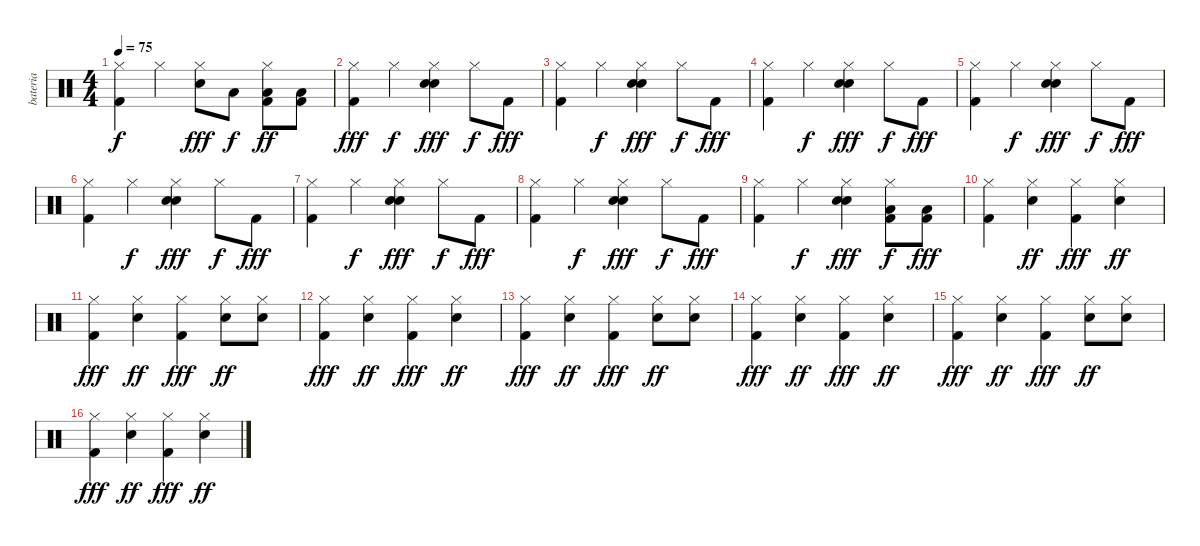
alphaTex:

\track ("bateria" "bateria") {instrument percussion}
\staff {score}
\articulation defaults
\ts (4 4)
\tempo 75
\clef neutral
\ks c
("Hi-Hat (closed)" "Kick (hit) 2").4{dy f} "Hi-Hat (closed)".4 ("Hi-Hat (closed)" "Electric Snare (hit)").8{dy fff} "Low Floor Tom (hit)".8{dy f} ("Hi-Hat (closed)" "Low Floor Tom (hit)" "Kick (hit) 2").8{dy ff} ("Low Floor Tom (hit)" "Kick (hit) 2").8 |
("Hi-Hat (closed)" "Kick (hit) 2").4{dy fff} "Hi-Hat (closed)".4{dy f} ("Hi-Hat (closed)" "Electric Snare (hit)" "Electric Snare (hit)").4{bd 60 dy fff} "Hi-Hat (closed)".8{dy f} "Kick (hit) 2".8{dy fff} |
("Hi-Hat (closed)" "Kick (hit) 2").4 "Hi-Hat (closed)".4{dy f} ("Hi-Hat (closed)" "Electric Snare (hit)" "Electric Snare (hit)").4{bd 60 dy fff} "Hi-Hat (closed)".8{dy f} "Kick (hit) 2".8{dy fff} |
("Hi-Hat (closed)" "Kick (hit) 2").4 "Hi-Hat (closed)".4{dy f} ("Hi-Hat (closed)" "Electric Snare (hit)" "Electric Snare (hit)").4{bd 60 dy fff} "Hi-Hat (closed)".8{dy f} "Kick (hit) 2".8{dy fff} |
("Hi-Hat (closed)" "Kick (hit) 2").4 "Hi-Hat (closed)".4{dy f} ("Hi-Hat (closed)" "Electric Snare (hit)" "Electric Snare (hit)").4{bd 60 dy fff} "Hi-Hat (closed)".8{dy f} "Kick (hit) 2".8{dy fff} |
("Hi-Hat (closed)" "Kick (hit) 2").4 "Hi-Hat (closed)".4{dy f} ("Hi-Hat (closed)" "Electric Snare (hit)" "Electric Snare (hit)").4{bd 60 dy fff} "Hi-Hat (closed)".8{dy f} "Kick (hit) 2".8{dy fff} |
("Hi-Hat (closed)" "Kick (hit) 2").4 "Hi-Hat (closed)".4{dy f} ("Hi-Hat (closed)" "Electric Snare (hit)" "Electric Snare (hit)").4{bd 60 dy fff} "Hi-Hat (closed)".8{dy f} "Kick (hit) 2".8{dy fff} |
("Hi-Hat (closed)" "Kick (hit) 2").4 "Hi-Hat (closed)".4{dy f} ("Hi-Hat (closed)" "Electric Snare (hit)" "Electric Snare (hit)").4{bd 60 dy fff} "Hi-Hat (closed)".8{dy f} "Kick (hit) 2".8{dy fff} |
("Hi-Hat (closed)" "Kick (hit) 2").4 "Hi-Hat (closed)".4{dy f} ("Hi-Hat (closed)" "Electric Snare (hit)" "Electric Snare (hit)").4{bd 60 dy fff} ("Hi-Hat (closed)" "Low Floor Tom (hit)" "Kick (hit) 2").8{dy f} ("Low Floor Tom (hit)" "Kick (hit) 2").8{dy fff} |
("Hi-Hat (closed)" "Kick (hit) 2").4 ("Hi-Hat (closed)" "Electric Snare (hit)").4{dy ff} ("Hi-Hat (closed)" "Kick (hit) 2").4{dy fff} ("Hi-Hat (closed)" "Electric Snare (hit)").4{dy ff} |
("Hi-Hat (closed)" "Kick (hit) 2").4{dy fff} ("Hi-Hat (closed)" "Electric Snare (hit)").4{dy ff} ("Hi-Hat (closed)" "Kick (hit) 2").4{dy fff} ("Hi-Hat (closed)" "Electric Snare (hit)").8{dy ff} ("Hi-Hat (closed)" "Electric Snare (hit)").8 |
("Hi-Hat (closed)" "Kick (hit) 2").4{dy fff} ("Hi-Hat (closed)" "Electric Snare (hit)").4{dy ff} ("Hi-Hat (closed)" "Kick (hit) 2").4{dy fff} ("Hi-Hat (closed)" "Electric Snare (hit)").4{dy ff} |
("Hi-Hat (closed)" "Kick (hit) 2").4{dy fff} ("Hi-Hat (closed)" "Electric Snare (hit)").4{dy ff} ("Hi-Hat (closed)" "Kick (hit) 2").4{dy fff} ("Hi-Hat (closed)" "Electric Snare (hit)").8{dy ff} ("Hi-Hat (closed)" "Electric Snare (hit)").8 |
("Hi-Hat (closed)" "Kick (hit) 2").4{dy fff} ("Hi-Hat (closed)" "Electric Snare (hit)").4{dy ff} ("Hi-Hat (closed)" "Kick (hit) 2").4{dy fff} ("Hi-Hat (closed)" "Electric Snare (hit)").4{dy ff} |
("Hi-Hat (closed)" "Kick (hit) 2").4{dy fff} ("Hi-Hat (closed)" "Electric Snare (hit)").4{dy ff} ("Hi-Hat (closed)" "Kick (hit) 2").4{dy fff} ("Hi-Hat (closed)" "Electric Snare (hit)").8{dy ff} ("Hi-Hat (closed)" "Electric Snare (hit)").8 |
("Hi-Hat (closed)" "Kick (hit) 2").4{dy fff} ("Hi-Hat (closed)" "Electric Snare (hit)").4{dy ff} ("Hi-Hat (closed)" "Kick (hit) 2").4{dy fff} ("Hi-Hat (closed)" "Electric Snare (hit)").4{dy ff}
